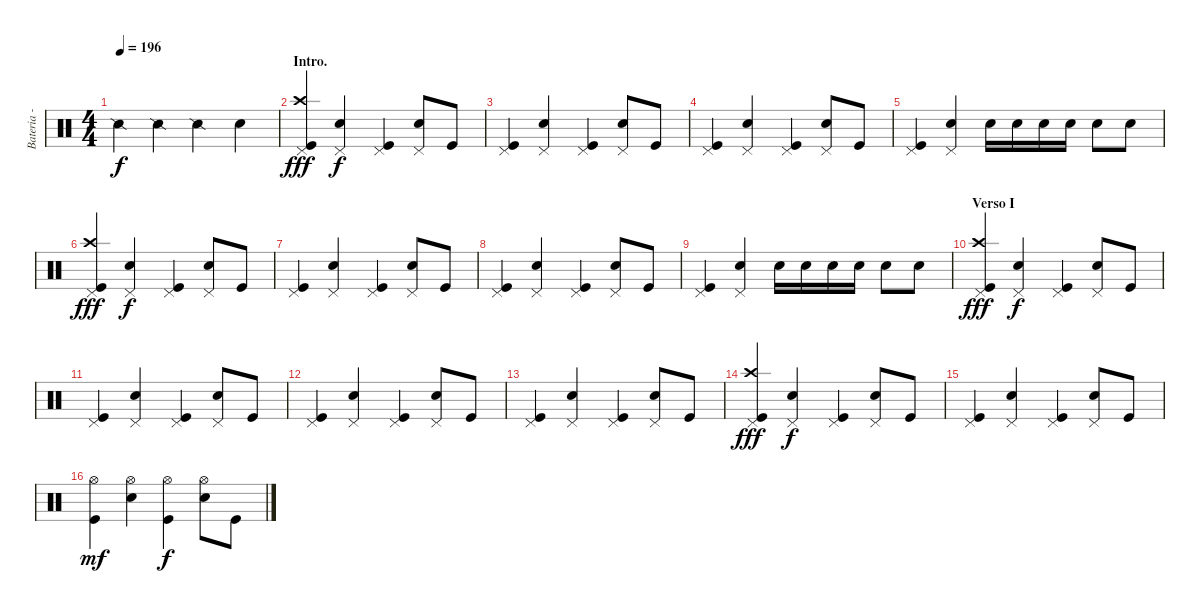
\track ("Bateria - Larzon" "Bateria - ") {instrument percussion}
\staff {score}
\articulation defaults
\ts (4 4)
\tempo 196
\clef neutral
\ks c "Snare (side stick) 2".4{dy f} "Snare (side stick) 2".4 "Snare (side stick) 2".4 "Electric Snare (hit)".4
|
\section ("" "Intro.")
("Kick (hit)" "Crash high (hit)" "Pedal Hi-Hat (hit)").4{dy fff} ("Electric Snare (hit)" "Pedal Hi-Hat (hit)").4{dy f} ("Kick (hit)" "Pedal Hi-Hat (hit)").4 ("Electric Snare (hit)" "Pedal Hi-Hat (hit)").8 "Kick (hit)".8 |
("Kick (hit)" "Pedal Hi-Hat (hit)").4 ("Electric Snare (hit)" "Pedal Hi-Hat (hit)").4 ("Kick (hit)" "Pedal Hi-Hat (hit)").4 ("Electric Snare (hit)" "Pedal Hi-Hat (hit)").8 "Kick (hit)".8 |
("Kick (hit)" "Pedal Hi-Hat (hit)").4 ("Electric Snare (hit)" "Pedal Hi-Hat (hit)").4 ("Kick (hit)" "Pedal Hi-Hat (hit)").4 ("Electric Snare (hit)" "Pedal Hi-Hat (hit)").8 "Kick (hit)".8 |
("Kick (hit)" "Pedal Hi-Hat (hit)").4 ("Electric Snare (hit)" "Pedal Hi-Hat (hit)").4 "Electric Snare (hit)".16 "Electric Snare (hit)".16 "Electric Snare (hit)".16 "Electric Snare (hit)".16 "Electric Snare (hit)".8 "Electric Snare (hit)".8 |
("Kick (hit)" "Crash high (hit)" "Pedal Hi-Hat (hit)").4{dy fff} ("Electric Snare (hit)" "Pedal Hi-Hat (hit)").4{dy f} ("Kick (hit)" "Pedal Hi-Hat (hit)").4 ("Electric Snare (hit)" "Pedal Hi-Hat (hit)").8 "Kick (hit)".8 |
("Kick (hit)" "Pedal Hi-Hat (hit)").4 ("Electric Snare (hit)" "Pedal Hi-Hat (hit)").4 ("Kick (hit)" "Pedal Hi-Hat (hit)").4 ("Electric Snare (hit)" "Pedal Hi-Hat (hit)").8 "Kick (hit)".8 |
("Kick (hit)" "Pedal Hi-Hat (hit)").4 ("Electric Snare (hit)" "Pedal Hi-Hat (hit)").4 ("Kick (hit)" "Pedal Hi-Hat (hit)").4 ("Electric Snare (hit)" "Pedal Hi-Hat (hit)").8 "Kick (hit)".8 |
("Kick (hit)" "Pedal Hi-Hat (hit)").4 ("Electric Snare (hit)" "Pedal Hi-Hat (hit)").4 "Electric Snare (hit)".16 "Electric Snare (hit)".16 "Electric Snare (hit)".16 "Electric Snare (hit)".16 "Electric Snare (hit)".8 "Electric Snare (hit)".8 |
\section ("" "Verso I")
("Kick (hit)" "Crash high (hit)" "Pedal Hi-Hat (hit)").4{dy fff} ("Electric Snare (hit)" "Pedal Hi-Hat (hit)").4{dy f} ("Kick (hit)" "Pedal Hi-Hat (hit)").4 ("Electric Snare (hit)" "Pedal Hi-Hat (hit)").8 "Kick (hit)".8 |
("Kick (hit)" "Pedal Hi-Hat (hit)").4 ("Electric Snare (hit)" "Pedal Hi-Hat (hit)").4 ("Kick (hit)" "Pedal Hi-Hat (hit)").4 ("Electric Snare (hit)" "Pedal Hi-Hat (hit)").8 "Kick (hit)".8 |
("Kick (hit)" "Pedal Hi-Hat (hit)").4 ("Electric Snare (hit)" "Pedal Hi-Hat (hit)").4 ("Kick (hit)" "Pedal Hi-Hat (hit)").4 ("Electric Snare (hit)" "Pedal Hi-Hat (hit)").8 "Kick (hit)".8 |
("Kick (hit)" "Pedal Hi-Hat (hit)").4 ("Electric Snare (hit)" "Pedal Hi-Hat (hit)").4 ("Kick (hit)" "Pedal Hi-Hat (hit)").4 ("Electric Snare (hit)" "Pedal Hi-Hat (hit)").8 "Kick (hit)".8 |
("Kick (hit)" "Crash high (hit)" "Pedal Hi-Hat (hit)").4{dy fff} ("Electric Snare (hit)" "Pedal Hi-Hat (hit)").4{dy f} ("Kick (hit)" "Pedal Hi-Hat (hit)").4 ("Electric Snare (hit)" "Pedal Hi-Hat (hit)").8 "Kick (hit)".8 |
("Kick (hit)" "Pedal Hi-Hat (hit)").4 ("Electric Snare (hit)" "Pedal Hi-Hat (hit)").4 ("Kick (hit)" "Pedal Hi-Hat (hit)").4 ("Electric Snare (hit)" "Pedal Hi-Hat (hit)").8 "Kick (hit)".8 |
("Kick (hit)" "Hi-Hat (open)").4{dy mf} ("Electric Snare (hit)" "Hi-Hat (open)").4 ("Kick (hit)" "Hi-Hat (open)").4{dy f} ("Electric Snare (hit)" "Hi-Hat (open)").8 "Kick (hit)".8
